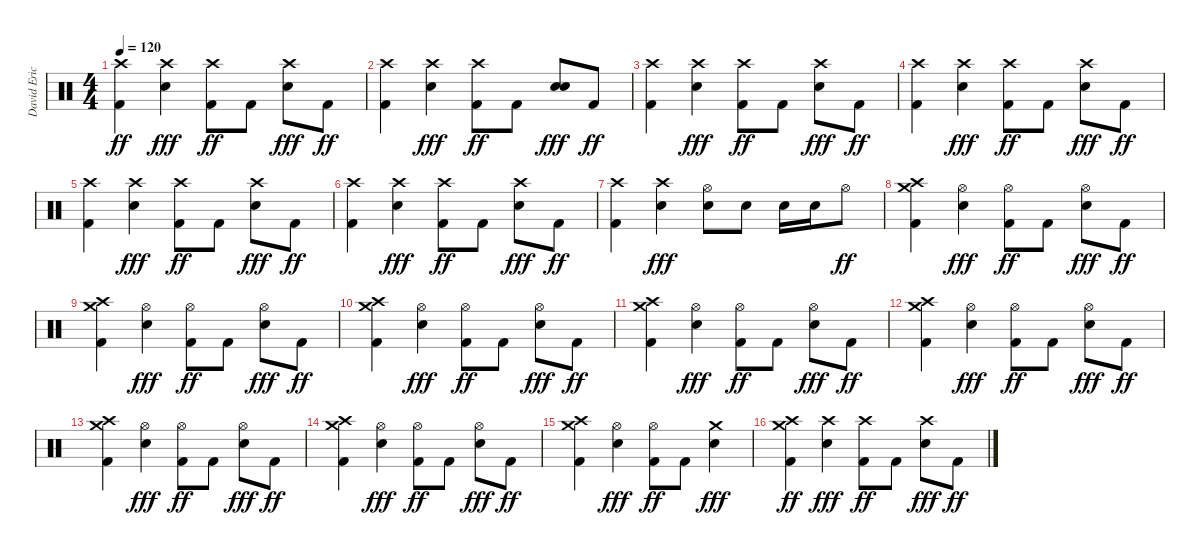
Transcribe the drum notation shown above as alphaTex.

\track ("David Eric Grohl" "David Eric") {instrument percussion}
\staff {score}
\articulation defaults
\ts (4 4)
\tempo 120
\clef neutral
\ks c
("Crash high (hit)" "Kick (hit) 2").4{dy ff} ("Crash high (hit)" "Electric Snare (hit)").4{dy fff} ("Crash high (hit)" "Kick (hit) 2").8{dy ff} "Kick (hit) 2".8 ("Crash high (hit)" "Electric Snare (hit)").8{dy fff} "Kick (hit) 2".8{dy ff} |
("Crash high (hit)" "Kick (hit) 2").4 ("Crash high (hit)" "Electric Snare (hit)").4{dy fff} ("Crash high (hit)" "Kick (hit) 2").8{dy ff} "Kick (hit) 2".8 ("Electric Snare (hit)" "Electric Snare (hit)").8{dy fff} "Kick (hit) 2".8{dy ff} |
("Crash high (hit)" "Kick (hit) 2").4 ("Crash high (hit)" "Electric Snare (hit)").4{dy fff} ("Crash high (hit)" "Kick (hit) 2").8{dy ff} "Kick (hit) 2".8 ("Crash high (hit)" "Electric Snare (hit)").8{dy fff} "Kick (hit) 2".8{dy ff} |
("Crash high (hit)" "Kick (hit) 2").4 ("Crash high (hit)" "Electric Snare (hit)").4{dy fff} ("Crash high (hit)" "Kick (hit) 2").8{dy ff} "Kick (hit) 2".8 ("Crash high (hit)" "Electric Snare (hit)").8{dy fff} "Kick (hit) 2".8{dy ff} |
("Crash high (hit)" "Kick (hit) 2").4 ("Crash high (hit)" "Electric Snare (hit)").4{dy fff} ("Crash high (hit)" "Kick (hit) 2").8{dy ff} "Kick (hit) 2".8 ("Crash high (hit)" "Electric Snare (hit)").8{dy fff} "Kick (hit) 2".8{dy ff} |
("Crash high (hit)" "Kick (hit) 2").4 ("Crash high (hit)" "Electric Snare (hit)").4{dy fff} ("Crash high (hit)" "Kick (hit) 2").8{dy ff} "Kick (hit) 2".8 ("Crash high (hit)" "Electric Snare (hit)").8{dy fff} "Kick (hit) 2".8{dy ff} |
("Crash high (hit)" "Kick (hit) 2").4 ("Crash high (hit)" "Electric Snare (hit)").4{dy fff} ("Hi-Hat (open)" "Electric Snare (hit)").8 "Electric Snare (hit)".8 "Electric Snare (hit)".16 "Electric Snare (hit)".16 "Hi-Hat (open)".8{dy ff} |
("Crash medium (hit)" "Crash high (hit)" "Kick (hit) 2").4 ("Hi-Hat (open)" "Electric Snare (hit)").4{dy fff} ("Hi-Hat (open)" "Kick (hit) 2").8{dy ff} "Kick (hit) 2".8 ("Hi-Hat (open)" "Electric Snare (hit)").8{dy fff} "Kick (hit) 2".8{dy ff} |
("Crash medium (hit)" "Crash high (hit)" "Kick (hit) 2").4 ("Hi-Hat (open)" "Electric Snare (hit)").4{dy fff} ("Hi-Hat (open)" "Kick (hit) 2").8{dy ff} "Kick (hit) 2".8 ("Hi-Hat (open)" "Electric Snare (hit)").8{dy fff} "Kick (hit) 2".8{dy ff} |
("Crash medium (hit)" "Crash high (hit)" "Kick (hit) 2").4 ("Hi-Hat (open)" "Electric Snare (hit)").4{dy fff} ("Hi-Hat (open)" "Kick (hit) 2").8{dy ff} "Kick (hit) 2".8 ("Hi-Hat (open)" "Electric Snare (hit)").8{dy fff} "Kick (hit) 2".8{dy ff} |
("Crash medium (hit)" "Crash high (hit)" "Kick (hit) 2").4 ("Hi-Hat (open)" "Electric Snare (hit)").4{dy fff} ("Hi-Hat (open)" "Kick (hit) 2").8{dy ff} "Kick (hit) 2".8 ("Hi-Hat (open)" "Electric Snare (hit)").8{dy fff} "Kick (hit) 2".8{dy ff} |
("Crash medium (hit)" "Crash high (hit)" "Kick (hit) 2").4 ("Hi-Hat (open)" "Electric Snare (hit)").4{dy fff} ("Hi-Hat (open)" "Kick (hit) 2").8{dy ff} "Kick (hit) 2".8 ("Hi-Hat (open)" "Electric Snare (hit)").8{dy fff} "Kick (hit) 2".8{dy ff} |
("Crash medium (hit)" "Crash high (hit)" "Kick (hit) 2").4 ("Hi-Hat (open)" "Electric Snare (hit)").4{dy fff} ("Hi-Hat (open)" "Kick (hit) 2").8{dy ff} "Kick (hit) 2".8 ("Hi-Hat (open)" "Electric Snare (hit)").8{dy fff} "Kick (hit) 2".8{dy ff} |
("Crash medium (hit)" "Crash high (hit)" "Kick (hit) 2").4 ("Hi-Hat (open)" "Electric Snare (hit)").4{dy fff} ("Hi-Hat (open)" "Kick (hit) 2").8{dy ff} "Kick (hit) 2".8 ("Hi-Hat (open)" "Electric Snare (hit)").8{dy fff} "Kick (hit) 2".8{dy ff} |
("Crash medium (hit)" "Crash high (hit)" "Kick (hit) 2").4 ("Hi-Hat (open)" "Electric Snare (hit)").4{dy fff} ("Hi-Hat (open)" "Kick (hit) 2").8{dy ff} "Kick (hit) 2".8 ("Crash medium (hit)" "Electric Snare (hit)").4{dy fff} |
("Crash medium (hit)" "Crash high (hit)" "Kick (hit) 2").4{dy ff} ("Crash high (hit)" "Electric Snare (hit)").4{dy fff} ("Crash high (hit)" "Kick (hit) 2").8{dy ff} "Kick (hit) 2".8 ("Crash high (hit)" "Electric Snare (hit)").8{dy fff} "Kick (hit) 2".8{dy ff}
